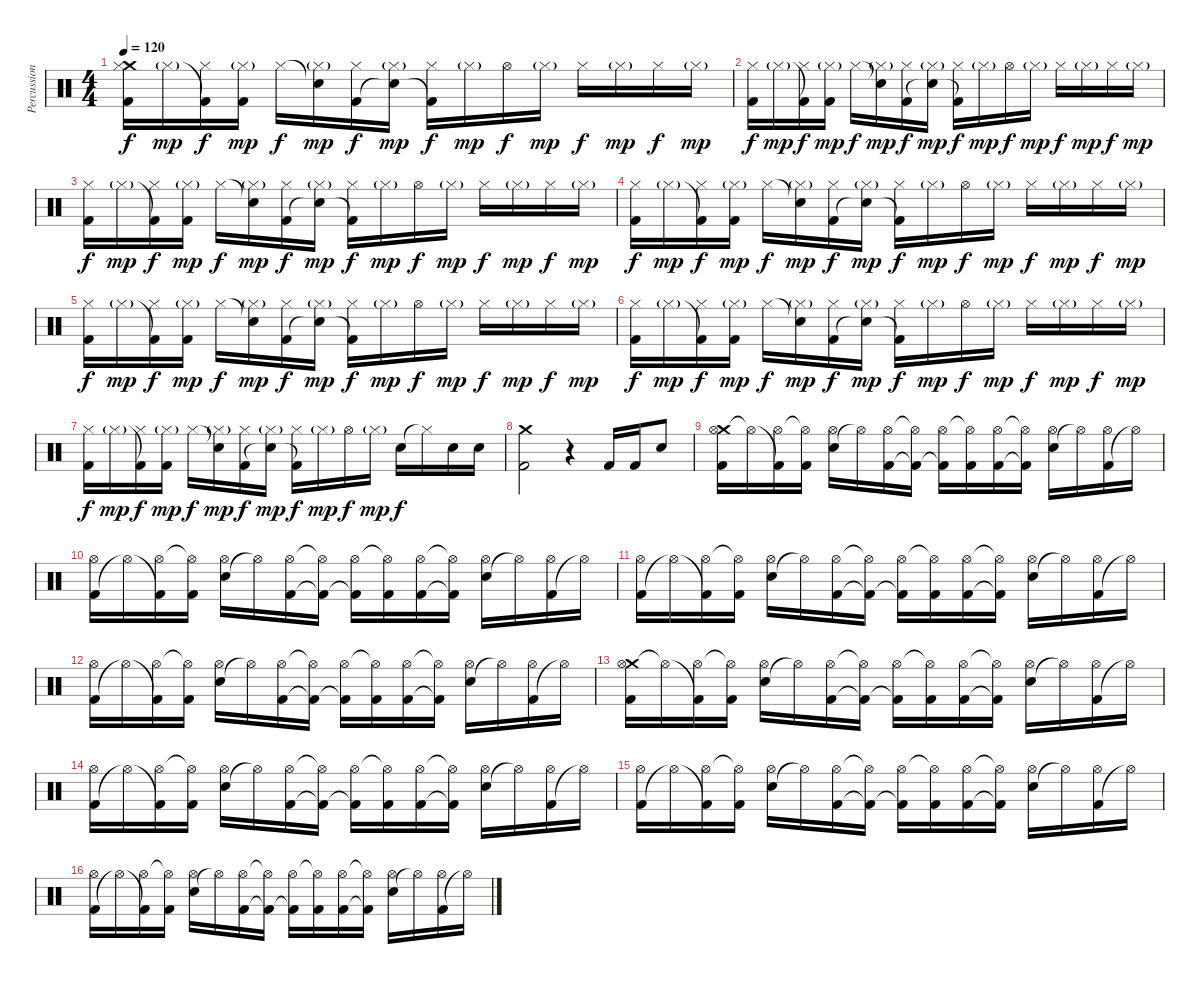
\track ("Percussions" "Percussion") {instrument percussion}
\staff {score}
\articulation defaults
\ts (4 4)
\tempo 120
\clef neutral
\ks c
("Crash medium (hit)" "Kick (hit) 2" "Hi-Hat (closed)").16{dy f} "Hi-Hat (closed)"{g}.16{dy mp} ("Kick (hit) 2"{t} "Hi-Hat (closed)").16{dy f} ("Kick (hit) 2" "Hi-Hat (closed)"{g}).16{dy mp} "Hi-Hat (closed)".16{dy f} ("Snare (hit)"{t} "Hi-Hat (closed)"{g}).16{dy mp} ("Kick (hit) 2" "Hi-Hat (closed)").16{dy f} ("Snare (hit)"{t} "Hi-Hat (closed)"{g}).16{dy mp} ("Kick (hit) 2"{t} "Hi-Hat (closed)").16{dy f} "Hi-Hat (closed)"{g}.16{dy mp} "Hi-Hat (open)".16{dy f} "Hi-Hat (closed)"{g}.16{dy mp} "Hi-Hat (closed)".16{dy f} "Hi-Hat (closed)"{g}.16{dy mp} "Hi-Hat (closed)".16{dy f} "Hi-Hat (closed)"{g}.16{dy mp} |
("Kick (hit) 2" "Hi-Hat (closed)").16{dy f} "Hi-Hat (closed)"{g}.16{dy mp} ("Kick (hit) 2"{t} "Hi-Hat (closed)").16{dy f} ("Kick (hit) 2" "Hi-Hat (closed)"{g}).16{dy mp} "Hi-Hat (closed)".16{dy f} ("Snare (hit)"{t} "Hi-Hat (closed)"{g}).16{dy mp} ("Kick (hit) 2" "Hi-Hat (closed)").16{dy f} ("Snare (hit)"{t} "Hi-Hat (closed)"{g}).16{dy mp} ("Kick (hit) 2"{t} "Hi-Hat (closed)").16{dy f} "Hi-Hat (closed)"{g}.16{dy mp} "Hi-Hat (open)".16{dy f} "Hi-Hat (closed)"{g}.16{dy mp} "Hi-Hat (closed)".16{dy f} "Hi-Hat (closed)"{g}.16{dy mp} "Hi-Hat (closed)".16{dy f} "Hi-Hat (closed)"{g}.16{dy mp} |
("Kick (hit) 2" "Hi-Hat (closed)").16{dy f} "Hi-Hat (closed)"{g}.16{dy mp} ("Kick (hit) 2"{t} "Hi-Hat (closed)").16{dy f} ("Kick (hit) 2" "Hi-Hat (closed)"{g}).16{dy mp} "Hi-Hat (closed)".16{dy f} ("Snare (hit)"{t} "Hi-Hat (closed)"{g}).16{dy mp} ("Kick (hit) 2" "Hi-Hat (closed)").16{dy f} ("Snare (hit)"{t} "Hi-Hat (closed)"{g}).16{dy mp} ("Kick (hit) 2"{t} "Hi-Hat (closed)").16{dy f} "Hi-Hat (closed)"{g}.16{dy mp} "Hi-Hat (open)".16{dy f} "Hi-Hat (closed)"{g}.16{dy mp} "Hi-Hat (closed)".16{dy f} "Hi-Hat (closed)"{g}.16{dy mp} "Hi-Hat (closed)".16{dy f} "Hi-Hat (closed)"{g}.16{dy mp} |
("Kick (hit) 2" "Hi-Hat (closed)").16{dy f} "Hi-Hat (closed)"{g}.16{dy mp} ("Kick (hit) 2"{t} "Hi-Hat (closed)").16{dy f} ("Kick (hit) 2" "Hi-Hat (closed)"{g}).16{dy mp} "Hi-Hat (closed)".16{dy f} ("Snare (hit)"{t} "Hi-Hat (closed)"{g}).16{dy mp} ("Kick (hit) 2" "Hi-Hat (closed)").16{dy f} ("Snare (hit)"{t} "Hi-Hat (closed)"{g}).16{dy mp} ("Kick (hit) 2"{t} "Hi-Hat (closed)").16{dy f} "Hi-Hat (closed)"{g}.16{dy mp} "Hi-Hat (open)".16{dy f} "Hi-Hat (closed)"{g}.16{dy mp} "Hi-Hat (closed)".16{dy f} "Hi-Hat (closed)"{g}.16{dy mp} "Hi-Hat (closed)".16{dy f} "Hi-Hat (closed)"{g}.16{dy mp} |
("Kick (hit) 2" "Hi-Hat (closed)").16{dy f} "Hi-Hat (closed)"{g}.16{dy mp} ("Kick (hit) 2"{t} "Hi-Hat (closed)").16{dy f} ("Kick (hit) 2" "Hi-Hat (closed)"{g}).16{dy mp} "Hi-Hat (closed)".16{dy f} ("Snare (hit)"{t} "Hi-Hat (closed)"{g}).16{dy mp} ("Kick (hit) 2" "Hi-Hat (closed)").16{dy f} ("Snare (hit)"{t} "Hi-Hat (closed)"{g}).16{dy mp} ("Kick (hit) 2"{t} "Hi-Hat (closed)").16{dy f} "Hi-Hat (closed)"{g}.16{dy mp} "Hi-Hat (open)".16{dy f} "Hi-Hat (closed)"{g}.16{dy mp} "Hi-Hat (closed)".16{dy f} "Hi-Hat (closed)"{g}.16{dy mp} "Hi-Hat (closed)".16{dy f} "Hi-Hat (closed)"{g}.16{dy mp} |
("Kick (hit) 2" "Hi-Hat (closed)").16{dy f} "Hi-Hat (closed)"{g}.16{dy mp} ("Kick (hit) 2"{t} "Hi-Hat (closed)").16{dy f} ("Kick (hit) 2" "Hi-Hat (closed)"{g}).16{dy mp} "Hi-Hat (closed)".16{dy f} ("Snare (hit)"{t} "Hi-Hat (closed)"{g}).16{dy mp} ("Kick (hit) 2" "Hi-Hat (closed)").16{dy f} ("Snare (hit)"{t} "Hi-Hat (closed)"{g}).16{dy mp} ("Kick (hit) 2"{t} "Hi-Hat (closed)").16{dy f} "Hi-Hat (closed)"{g}.16{dy mp} "Hi-Hat (open)".16{dy f} "Hi-Hat (closed)"{g}.16{dy mp} "Hi-Hat (closed)".16{dy f} "Hi-Hat (closed)"{g}.16{dy mp} "Hi-Hat (closed)".16{dy f} "Hi-Hat (closed)"{g}.16{dy mp} |
("Kick (hit) 2" "Hi-Hat (closed)").16{dy f} "Hi-Hat (closed)"{g}.16{dy mp} ("Kick (hit) 2"{t} "Hi-Hat (closed)").16{dy f} ("Kick (hit) 2" "Hi-Hat (closed)"{g}).16{dy mp} "Hi-Hat (closed)".16{dy f} ("Snare (hit)"{t} "Hi-Hat (closed)"{g}).16{dy mp} ("Kick (hit) 2" "Hi-Hat (closed)").16{dy f} ("Snare (hit)"{t} "Hi-Hat (closed)"{g}).16{dy mp} ("Kick (hit) 2"{t} "Hi-Hat (closed)").16{dy f} "Hi-Hat (closed)"{g}.16{dy mp} "Hi-Hat (open)".16{dy f} "Hi-Hat (closed)"{g}.16{dy mp} "Electric Snare (hit)".16{dy f} "Hi-Hat (closed)"{t}.16 "Electric Snare (hit)".16 "Electric Snare (hit)".16 |
("Crash medium (hit)" "Kick (hit) 2").2 r.4 "Kick (hit) 2".16 "Kick (hit) 2".16 "Electric Snare (hit)".8 |
("Crash medium (hit)" "Kick (hit) 2" "Hi-Hat (open)").16 "Hi-Hat (open)"{t}.16 ("Kick (hit) 2"{t} "Hi-Hat (open)").16 ("Kick (hit) 2" "Hi-Hat (open)"{t}).16 ("Electric Snare (hit)" "Hi-Hat (open)").16 "Hi-Hat (open)"{t}.16 ("Kick (hit) 2" "Hi-Hat (open)").16 ("Kick (hit) 2"{t} "Hi-Hat (open)"{t}).16 ("Kick (hit) 2"{t} "Hi-Hat (open)").16 ("Kick (hit) 2" "Hi-Hat (open)"{t}).16 ("Kick (hit) 2" "Hi-Hat (open)").16 ("Kick (hit) 2"{t} "Hi-Hat (open)"{t}).16 ("Electric Snare (hit)" "Hi-Hat (open)").16 "Hi-Hat (open)"{t}.16 ("Kick (hit) 2" "Hi-Hat (open)").16 "Hi-Hat (open)"{t}.16 |
("Kick (hit) 2" "Hi-Hat (open)").16 "Hi-Hat (open)"{t}.16 ("Kick (hit) 2"{t} "Hi-Hat (open)").16 ("Kick (hit) 2" "Hi-Hat (open)"{t}).16 ("Electric Snare (hit)" "Hi-Hat (open)").16 "Hi-Hat (open)"{t}.16 ("Kick (hit) 2" "Hi-Hat (open)").16 ("Kick (hit) 2"{t} "Hi-Hat (open)"{t}).16 ("Kick (hit) 2"{t} "Hi-Hat (open)").16 ("Kick (hit) 2" "Hi-Hat (open)"{t}).16 ("Kick (hit) 2" "Hi-Hat (open)").16 ("Kick (hit) 2"{t} "Hi-Hat (open)"{t}).16 ("Electric Snare (hit)" "Hi-Hat (open)").16 "Hi-Hat (open)"{t}.16 ("Kick (hit) 2" "Hi-Hat (open)").16 "Hi-Hat (open)"{t}.16 |
("Kick (hit) 2" "Hi-Hat (open)").16 "Hi-Hat (open)"{t}.16 ("Kick (hit) 2"{t} "Hi-Hat (open)").16 ("Kick (hit) 2" "Hi-Hat (open)"{t}).16 ("Electric Snare (hit)" "Hi-Hat (open)").16 "Hi-Hat (open)"{t}.16 ("Kick (hit) 2" "Hi-Hat (open)").16 ("Kick (hit) 2"{t} "Hi-Hat (open)"{t}).16 ("Kick (hit) 2"{t} "Hi-Hat (open)").16 ("Kick (hit) 2" "Hi-Hat (open)"{t}).16 ("Kick (hit) 2" "Hi-Hat (open)").16 ("Kick (hit) 2"{t} "Hi-Hat (open)"{t}).16 ("Electric Snare (hit)" "Hi-Hat (open)").16 "Hi-Hat (open)"{t}.16 ("Kick (hit) 2" "Hi-Hat (open)").16 "Hi-Hat (open)"{t}.16 |
("Kick (hit) 2" "Hi-Hat (open)").16 "Hi-Hat (open)"{t}.16 ("Kick (hit) 2"{t} "Hi-Hat (open)").16 ("Kick (hit) 2" "Hi-Hat (open)"{t}).16 ("Electric Snare (hit)" "Hi-Hat (open)").16 "Hi-Hat (open)"{t}.16 ("Kick (hit) 2" "Hi-Hat (open)").16 ("Kick (hit) 2"{t} "Hi-Hat (open)"{t}).16 ("Kick (hit) 2"{t} "Hi-Hat (open)").16 ("Kick (hit) 2" "Hi-Hat (open)"{t}).16 ("Kick (hit) 2" "Hi-Hat (open)").16 ("Kick (hit) 2"{t} "Hi-Hat (open)"{t}).16 ("Electric Snare (hit)" "Hi-Hat (open)").16 "Hi-Hat (open)"{t}.16 ("Kick (hit) 2" "Hi-Hat (open)").16 "Hi-Hat (open)"{t}.16 |
("Crash medium (hit)" "Kick (hit) 2" "Hi-Hat (open)").16 "Hi-Hat (open)"{t}.16 ("Kick (hit) 2"{t} "Hi-Hat (open)").16 ("Kick (hit) 2" "Hi-Hat (open)"{t}).16 ("Electric Snare (hit)" "Hi-Hat (open)").16 "Hi-Hat (open)"{t}.16 ("Kick (hit) 2" "Hi-Hat (open)").16 ("Kick (hit) 2"{t} "Hi-Hat (open)"{t}).16 ("Kick (hit) 2"{t} "Hi-Hat (open)").16 ("Kick (hit) 2" "Hi-Hat (open)"{t}).16 ("Kick (hit) 2" "Hi-Hat (open)").16 ("Kick (hit) 2"{t} "Hi-Hat (open)"{t}).16 ("Electric Snare (hit)" "Hi-Hat (open)").16 "Hi-Hat (open)"{t}.16 ("Kick (hit) 2" "Hi-Hat (open)").16 "Hi-Hat (open)"{t}.16 |
("Kick (hit) 2" "Hi-Hat (open)").16 "Hi-Hat (open)"{t}.16 ("Kick (hit) 2"{t} "Hi-Hat (open)").16 ("Kick (hit) 2" "Hi-Hat (open)"{t}).16 ("Electric Snare (hit)" "Hi-Hat (open)").16 "Hi-Hat (open)"{t}.16 ("Kick (hit) 2" "Hi-Hat (open)").16 ("Kick (hit) 2"{t} "Hi-Hat (open)"{t}).16 ("Kick (hit) 2"{t} "Hi-Hat (open)").16 ("Kick (hit) 2" "Hi-Hat (open)"{t}).16 ("Kick (hit) 2" "Hi-Hat (open)").16 ("Kick (hit) 2"{t} "Hi-Hat (open)"{t}).16 ("Electric Snare (hit)" "Hi-Hat (open)").16 "Hi-Hat (open)"{t}.16 ("Kick (hit) 2" "Hi-Hat (open)").16 "Hi-Hat (open)"{t}.16 |
("Kick (hit) 2" "Hi-Hat (open)").16 "Hi-Hat (open)"{t}.16 ("Kick (hit) 2"{t} "Hi-Hat (open)").16 ("Kick (hit) 2" "Hi-Hat (open)"{t}).16 ("Electric Snare (hit)" "Hi-Hat (open)").16 "Hi-Hat (open)"{t}.16 ("Kick (hit) 2" "Hi-Hat (open)").16 ("Kick (hit) 2"{t} "Hi-Hat (open)"{t}).16 ("Kick (hit) 2"{t} "Hi-Hat (open)").16 ("Kick (hit) 2" "Hi-Hat (open)"{t}).16 ("Kick (hit) 2" "Hi-Hat (open)").16 ("Kick (hit) 2"{t} "Hi-Hat (open)"{t}).16 ("Electric Snare (hit)" "Hi-Hat (open)").16 "Hi-Hat (open)"{t}.16 ("Kick (hit) 2" "Hi-Hat (open)").16 "Hi-Hat (open)"{t}.16 |
("Kick (hit) 2" "Hi-Hat (open)").16 "Hi-Hat (open)"{t}.16 ("Kick (hit) 2"{t} "Hi-Hat (open)").16 ("Kick (hit) 2" "Hi-Hat (open)"{t}).16 ("Electric Snare (hit)" "Hi-Hat (open)").16 "Hi-Hat (open)"{t}.16 ("Kick (hit) 2" "Hi-Hat (open)").16 ("Kick (hit) 2"{t} "Hi-Hat (open)"{t}).16 ("Kick (hit) 2"{t} "Hi-Hat (open)").16 ("Kick (hit) 2" "Hi-Hat (open)"{t}).16 ("Kick (hit) 2" "Hi-Hat (open)").16 ("Kick (hit) 2"{t} "Hi-Hat (open)"{t}).16 ("Electric Snare (hit)" "Hi-Hat (open)").16 "Hi-Hat (open)"{t}.16 ("Kick (hit) 2" "Hi-Hat (open)").16 "Hi-Hat (open)"{t}.16
